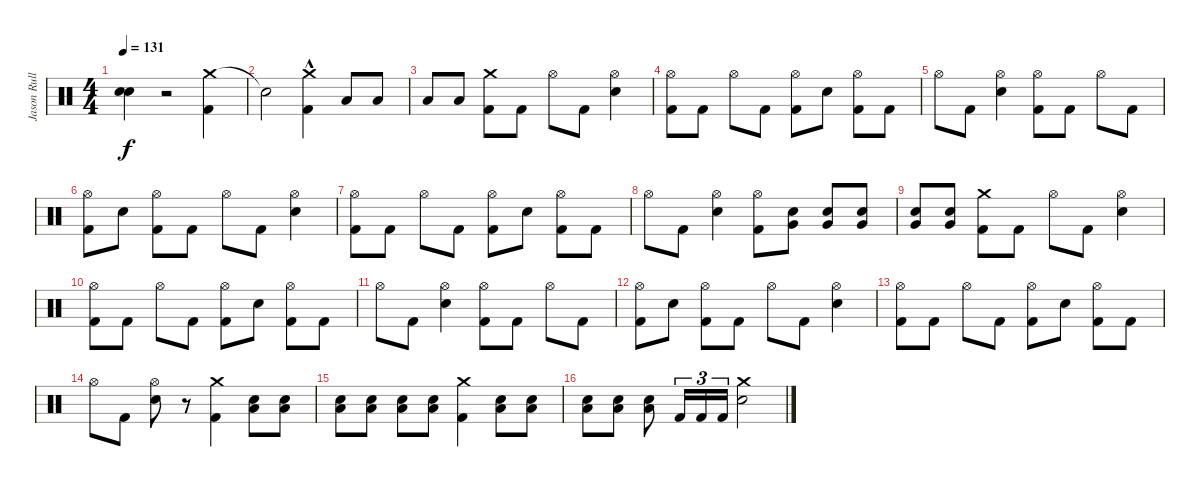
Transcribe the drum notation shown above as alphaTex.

\track ("Jason Rullo (Drums)" "Jason Rull") {instrument percussion}
\staff {score}
\articulation defaults
\ts (4 4)
\tempo 131
\clef neutral
\ks c
("Snare (hit)"{t} "Snare (hit)"{t}).4{dy f} r.2 ("Crash medium (hit)" "Kick (hit) 2").4 |
"Snare (hit)"{t}.2 ("Crash medium (hit)" "Kick (hit) 2"{hac}).4 "Low Floor Tom (hit)".8 "Low Floor Tom (hit)".8 |
"Low Floor Tom (hit)".8 "Low Floor Tom (hit)".8 ("Crash medium (hit)" "Kick (hit) 2").8 "Kick (hit) 2".8 "Hi-Hat (open)".8 "Kick (hit) 2".8 ("Hi-Hat (open)" "Electric Snare (hit)").4 |
("Hi-Hat (open)" "Kick (hit) 2").8 "Kick (hit) 2".8 "Hi-Hat (open)".8 "Kick (hit) 2".8 ("Hi-Hat (open)" "Kick (hit) 2").8 "Electric Snare (hit)".8 ("Hi-Hat (open)" "Kick (hit) 2").8 "Kick (hit) 2".8 |
"Hi-Hat (open)".8 "Kick (hit) 2".8 ("Hi-Hat (open)" "Electric Snare (hit)").4 ("Hi-Hat (open)" "Kick (hit) 2").8 "Kick (hit) 2".8 "Hi-Hat (open)".8 "Kick (hit) 2".8 |
("Hi-Hat (open)" "Kick (hit) 2").8 "Electric Snare (hit)".8 ("Hi-Hat (open)" "Kick (hit) 2").8 "Kick (hit) 2".8 "Hi-Hat (open)".8 "Kick (hit) 2".8 ("Hi-Hat (open)" "Electric Snare (hit)").4 |
("Hi-Hat (open)" "Kick (hit) 2").8 "Kick (hit) 2".8 "Hi-Hat (open)".8 "Kick (hit) 2".8 ("Hi-Hat (open)" "Kick (hit) 2").8 "Electric Snare (hit)".8 ("Hi-Hat (open)" "Kick (hit) 2").8 "Kick (hit) 2".8 |
"Hi-Hat (open)".8 "Kick (hit) 2".8 ("Hi-Hat (open)" "Electric Snare (hit)").4 ("Hi-Hat (open)" "Kick (hit) 2").8 ("Very Low Tom (hit)" "Electric Snare (hit)").8 ("Very Low Tom (hit)" "Electric Snare (hit)").8 ("Very Low Tom (hit)" "Electric Snare (hit)").8 |
("Very Low Tom (hit)" "Electric Snare (hit)").8 ("Very Low Tom (hit)" "Electric Snare (hit)").8 ("Crash medium (hit)" "Kick (hit) 2").8 "Kick (hit) 2".8 "Hi-Hat (open)".8 "Kick (hit) 2".8 ("Hi-Hat (open)" "Electric Snare (hit)").4 |
("Hi-Hat (open)" "Kick (hit) 2").8 "Kick (hit) 2".8 "Hi-Hat (open)".8 "Kick (hit) 2".8 ("Hi-Hat (open)" "Kick (hit) 2").8 "Electric Snare (hit)".8 ("Hi-Hat (open)" "Kick (hit) 2").8 "Kick (hit) 2".8 |
"Hi-Hat (open)".8 "Kick (hit) 2".8 ("Hi-Hat (open)" "Electric Snare (hit)").4 ("Hi-Hat (open)" "Kick (hit) 2").8 "Kick (hit) 2".8 "Hi-Hat (open)".8 "Kick (hit) 2".8 |
("Hi-Hat (open)" "Kick (hit) 2").8 "Electric Snare (hit)".8 ("Hi-Hat (open)" "Kick (hit) 2").8 "Kick (hit) 2".8 "Hi-Hat (open)".8 "Kick (hit) 2".8 ("Hi-Hat (open)" "Electric Snare (hit)").4 |
("Hi-Hat (open)" "Kick (hit) 2").8 "Kick (hit) 2".8 "Hi-Hat (open)".8 "Kick (hit) 2".8 ("Hi-Hat (open)" "Kick (hit) 2").8 "Electric Snare (hit)".8 ("Hi-Hat (open)" "Kick (hit) 2").8 "Kick (hit) 2".8 |
"Hi-Hat (open)".8 "Kick (hit) 2".8 ("Hi-Hat (open)" "Electric Snare (hit)").8 r.8 ("Crash medium (hit)" "Kick (hit) 2").4 ("Low Floor Tom (hit)" "Electric Snare (hit)").8{volume 6} ("Low Floor Tom (hit)" "Electric Snare (hit)").8{volume 8} |
("Low Floor Tom (hit)" "Electric Snare (hit)").8{volume 9} ("Low Floor Tom (hit)" "Electric Snare (hit)").8{volume 11} ("Low Floor Tom (hit)" "Electric Snare (hit)").8{volume 13} ("Low Floor Tom (hit)" "Electric Snare (hit)").8{volume 14} ("Crash medium (hit)" "Kick (hit) 2").4{volume 16} ("Low Floor Tom (hit)" "Electric Snare (hit)").8 ("Low Floor Tom (hit)" "Electric Snare (hit)").8 |
("Low Floor Tom (hit)" "Electric Snare (hit)").8 ("Low Floor Tom (hit)" "Electric Snare (hit)").8 ("Low Floor Tom (hit)" "Electric Snare (hit)").8 "Kick (hit) 2".16{tu (3 2)} "Kick (hit) 2".16{tu (3 2)} "Kick (hit) 2".16{tu (3 2)} ("Crash medium (hit)" "Electric Snare (hit)").2
